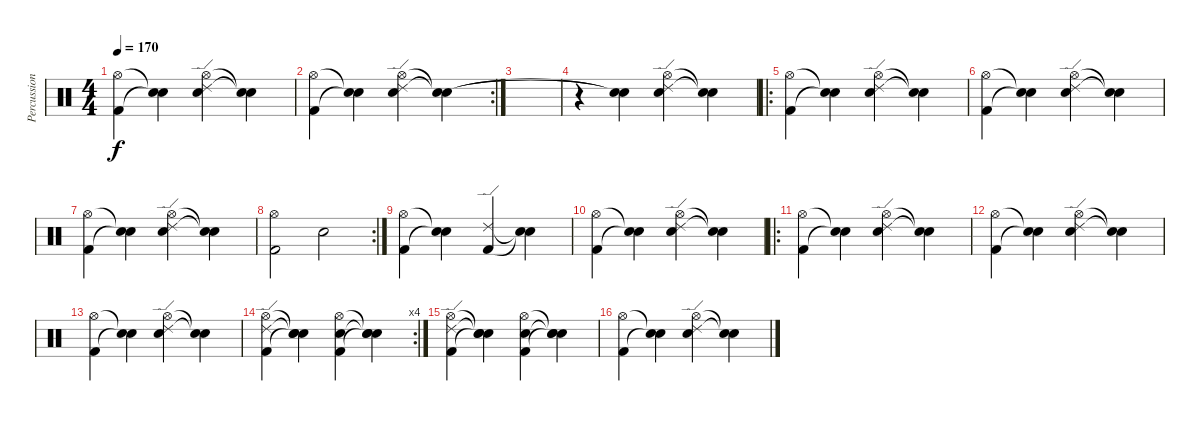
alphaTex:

\track ("Percussion" "Percussion") {instrument percussion}
\staff {score}
\articulation defaults
\ts (4 4)
\tempo 170
\clef neutral
\ks c
("Hi-Hat (open)" "Kick (hit) 2").4{dy f} ("Electric Snare (hit)"{t} "Snare (hit)"{t}).4 ("Hi-Hat (open)" "Ride (edge) 2" "Electric Snare (hit)").4 ("Electric Snare (hit)"{t} "Snare (hit)"{t}).4 |
\rc 2
("Hi-Hat (open)" "Kick (hit) 2").4 ("Electric Snare (hit)"{t} "Snare (hit)"{t}).4 ("Hi-Hat (open)" "Ride (edge) 2" "Electric Snare (hit)").4 ("Electric Snare (hit)"{t} "Snare (hit)"{t}).4 |
|
r.4 ("Electric Snare (hit)"{t} "Snare (hit)"{t}).4 ("Hi-Hat (open)" "Ride (edge) 2" "Electric Snare (hit)").4 ("Electric Snare (hit)"{t} "Snare (hit)"{t}).4 |
\ro
("Hi-Hat (open)" "Kick (hit) 2").4 ("Electric Snare (hit)"{t} "Snare (hit)"{t}).4 ("Hi-Hat (open)" "Ride (edge) 2" "Electric Snare (hit)").4 ("Electric Snare (hit)"{t} "Snare (hit)"{t}).4 |
("Hi-Hat (open)" "Kick (hit) 2").4 ("Electric Snare (hit)"{t} "Snare (hit)"{t}).4 ("Hi-Hat (open)" "Ride (edge) 2" "Electric Snare (hit)").4 ("Electric Snare (hit)"{t} "Snare (hit)"{t}).4 |
("Hi-Hat (open)" "Kick (hit) 2").4 ("Electric Snare (hit)"{t} "Snare (hit)"{t}).4 ("Hi-Hat (open)" "Ride (edge) 2" "Electric Snare (hit)").4 ("Electric Snare (hit)"{t} "Snare (hit)"{t}).4 |
\rc 2
("Hi-Hat (open)" "Kick (hit) 2").2 "Electric Snare (hit)".2 |
("Hi-Hat (open)" "Kick (hit) 2").4 ("Electric Snare (hit)"{t} "Snare (hit)"{t}).4 ("Ride (edge) 2" "Kick (hit) 2").4 ("Electric Snare (hit)"{t} "Snare (hit)"{t}).4 |
("Hi-Hat (open)" "Kick (hit) 2").4 ("Electric Snare (hit)"{t} "Snare (hit)"{t}).4 ("Hi-Hat (open)" "Ride (edge) 2" "Electric Snare (hit)").4 ("Electric Snare (hit)"{t} "Snare (hit)"{t}).4 |
\ro
("Hi-Hat (open)" "Kick (hit) 2").4 ("Electric Snare (hit)"{t} "Snare (hit)"{t}).4 ("Hi-Hat (open)" "Ride (edge) 2" "Electric Snare (hit)").4 ("Electric Snare (hit)"{t} "Snare (hit)"{t}).4 |
("Hi-Hat (open)" "Kick (hit) 2").4 ("Electric Snare (hit)"{t} "Snare (hit)"{t}).4 ("Hi-Hat (open)" "Ride (edge) 2" "Electric Snare (hit)").4 ("Electric Snare (hit)"{t} "Snare (hit)"{t}).4 |
("Hi-Hat (open)" "Kick (hit) 2").4 ("Electric Snare (hit)"{t} "Snare (hit)"{t}).4 ("Hi-Hat (open)" "Ride (edge) 2" "Electric Snare (hit)").4 ("Electric Snare (hit)"{t} "Snare (hit)"{t}).4 |
\rc 4
("Ride (edge) 2" "Hi-Hat (open)" "Kick (hit) 2").4 ("Snare (hit)"{t} "Snare (hit)"{t} "Snare (hit)"{t}).4 ("Electric Snare (hit)" "Hi-Hat (open)" "Kick (hit) 2").4 ("Snare (hit)"{t} "Snare (hit)"{t} "Snare (hit)"{t}).4 |
("Ride (edge) 2" "Hi-Hat (open)" "Kick (hit) 2").4 ("Snare (hit)"{t} "Snare (hit)"{t} "Snare (hit)"{t}).4 ("Electric Snare (hit)" "Hi-Hat (open)" "Kick (hit) 2").4 ("Snare (hit)"{t} "Snare (hit)"{t} "Snare (hit)"{t}).4 |
("Hi-Hat (open)" "Kick (hit) 2").4 ("Electric Snare (hit)"{t} "Snare (hit)"{t}).4 ("Hi-Hat (open)" "Ride (edge) 2" "Electric Snare (hit)").4 ("Electric Snare (hit)"{t} "Snare (hit)"{t}).4
